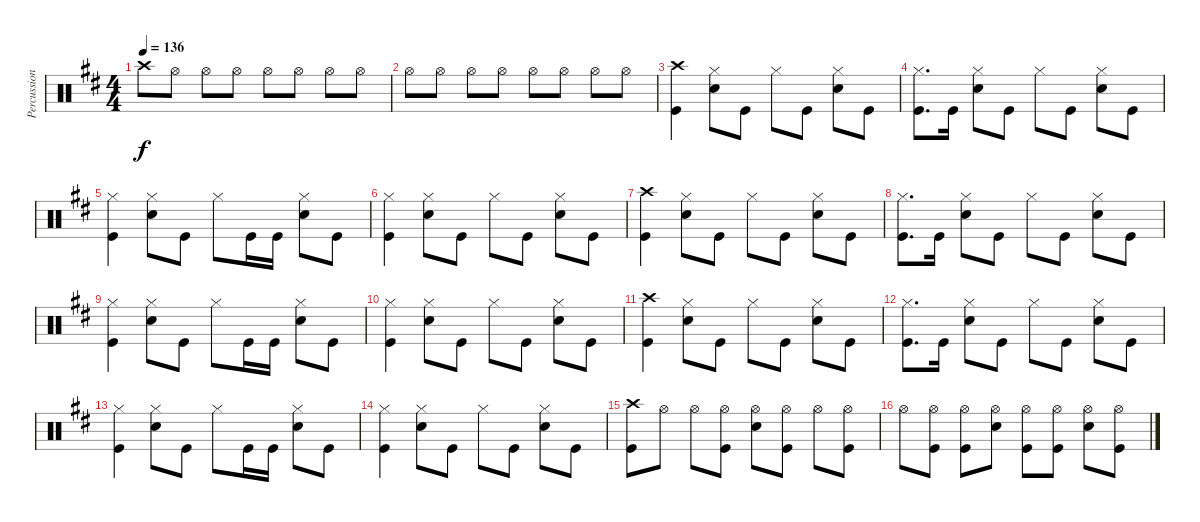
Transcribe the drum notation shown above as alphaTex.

\track ("Percussion" "Percussion") {instrument percussion}
\staff {score}
\articulation defaults
\ts (4 4)
\tempo 136
\clef neutral
\ks d "Crash high (hit)".8{dy f} "Hi-Hat (open)".8 "Hi-Hat (open)".8 "Hi-Hat (open)".8 "Hi-Hat (open)".8 "Hi-Hat (open)".8 "Hi-Hat (open)".8 "Hi-Hat (open)".8
|
"Hi-Hat (open)".8 "Hi-Hat (open)".8 "Hi-Hat (open)".8 "Hi-Hat (open)".8 "Hi-Hat (open)".8 "Hi-Hat (open)".8 "Hi-Hat (open)".8 "Hi-Hat (open)".8 |
("Crash high (hit)" "Kick (hit)").4 ("Snare (hit) 2" "Hi-Hat (closed)").8 "Kick (hit)".8 "Hi-Hat (closed)".8 "Kick (hit)".8 ("Snare (hit) 2" "Hi-Hat (closed)").8 "Kick (hit)".8 |
("Hi-Hat (closed)" "Kick (hit)").8{d} "Kick (hit)".16 ("Snare (hit) 2" "Hi-Hat (closed)").8 "Kick (hit)".8 "Hi-Hat (closed)".8 "Kick (hit)".8 ("Snare (hit) 2" "Hi-Hat (closed)").8 "Kick (hit)".8 |
("Kick (hit)" "Hi-Hat (closed)").4 ("Snare (hit) 2" "Hi-Hat (closed)").8 "Kick (hit)".8 "Hi-Hat (closed)".8 "Kick (hit)".16 "Kick (hit)".16 ("Snare (hit) 2" "Hi-Hat (closed)").8 "Kick (hit)".8 |
("Hi-Hat (closed)" "Kick (hit)").4 ("Snare (hit) 2" "Hi-Hat (closed)").8 "Kick (hit)".8 "Hi-Hat (closed)".8 "Kick (hit)".8 ("Snare (hit) 2" "Hi-Hat (closed)").8 "Kick (hit)".8 |
("Crash high (hit)" "Kick (hit)").4 ("Snare (hit) 2" "Hi-Hat (closed)").8 "Kick (hit)".8 "Hi-Hat (closed)".8 "Kick (hit)".8 ("Snare (hit) 2" "Hi-Hat (closed)").8 "Kick (hit)".8 |
("Hi-Hat (closed)" "Kick (hit)").8{d} "Kick (hit)".16 ("Snare (hit) 2" "Hi-Hat (closed)").8 "Kick (hit)".8 "Hi-Hat (closed)".8 "Kick (hit)".8 ("Snare (hit) 2" "Hi-Hat (closed)").8 "Kick (hit)".8 |
("Kick (hit)" "Hi-Hat (closed)").4 ("Snare (hit) 2" "Hi-Hat (closed)").8 "Kick (hit)".8 "Hi-Hat (closed)".8 "Kick (hit)".16 "Kick (hit)".16 ("Snare (hit) 2" "Hi-Hat (closed)").8 "Kick (hit)".8 |
("Hi-Hat (closed)" "Kick (hit)").4 ("Snare (hit) 2" "Hi-Hat (closed)").8 "Kick (hit)".8 "Hi-Hat (closed)".8 "Kick (hit)".8 ("Snare (hit) 2" "Hi-Hat (closed)").8 "Kick (hit)".8 |
("Crash high (hit)" "Kick (hit)").4 ("Snare (hit) 2" "Hi-Hat (closed)").8 "Kick (hit)".8 "Hi-Hat (closed)".8 "Kick (hit)".8 ("Snare (hit) 2" "Hi-Hat (closed)").8 "Kick (hit)".8 |
("Hi-Hat (closed)" "Kick (hit)").8{d} "Kick (hit)".16 ("Snare (hit) 2" "Hi-Hat (closed)").8 "Kick (hit)".8 "Hi-Hat (closed)".8 "Kick (hit)".8 ("Snare (hit) 2" "Hi-Hat (closed)").8 "Kick (hit)".8 |
("Kick (hit)" "Hi-Hat (closed)").4 ("Snare (hit) 2" "Hi-Hat (closed)").8 "Kick (hit)".8 "Hi-Hat (closed)".8 "Kick (hit)".16 "Kick (hit)".16 ("Snare (hit) 2" "Hi-Hat (closed)").8 "Kick (hit)".8 |
("Hi-Hat (closed)" "Kick (hit)").4 ("Snare (hit) 2" "Hi-Hat (closed)").8 "Kick (hit)".8 "Hi-Hat (closed)".8 "Kick (hit)".8 ("Snare (hit) 2" "Hi-Hat (closed)").8 "Kick (hit)".8 |
("Crash high (hit)" "Kick (hit)").8 "Hi-Hat (open)".8 "Hi-Hat (open)".8 ("Hi-Hat (open)" "Kick (hit)").8 ("Snare (hit) 2" "Hi-Hat (open)").8 ("Kick (hit)" "Hi-Hat (open)").8 "Hi-Hat (open)".8 ("Hi-Hat (open)" "Kick (hit)").8 |
"Hi-Hat (open)".8 ("Kick (hit)" "Hi-Hat (open)").8 ("Kick (hit)" "Hi-Hat (open)").8 ("Snare (hit) 2" "Hi-Hat (open)").8 ("Kick (hit)" "Hi-Hat (open)").8 ("Kick (hit)" "Hi-Hat (open)").8 ("Snare (hit) 2" "Hi-Hat (open)").8 ("Hi-Hat (open)" "Kick (hit)").8
